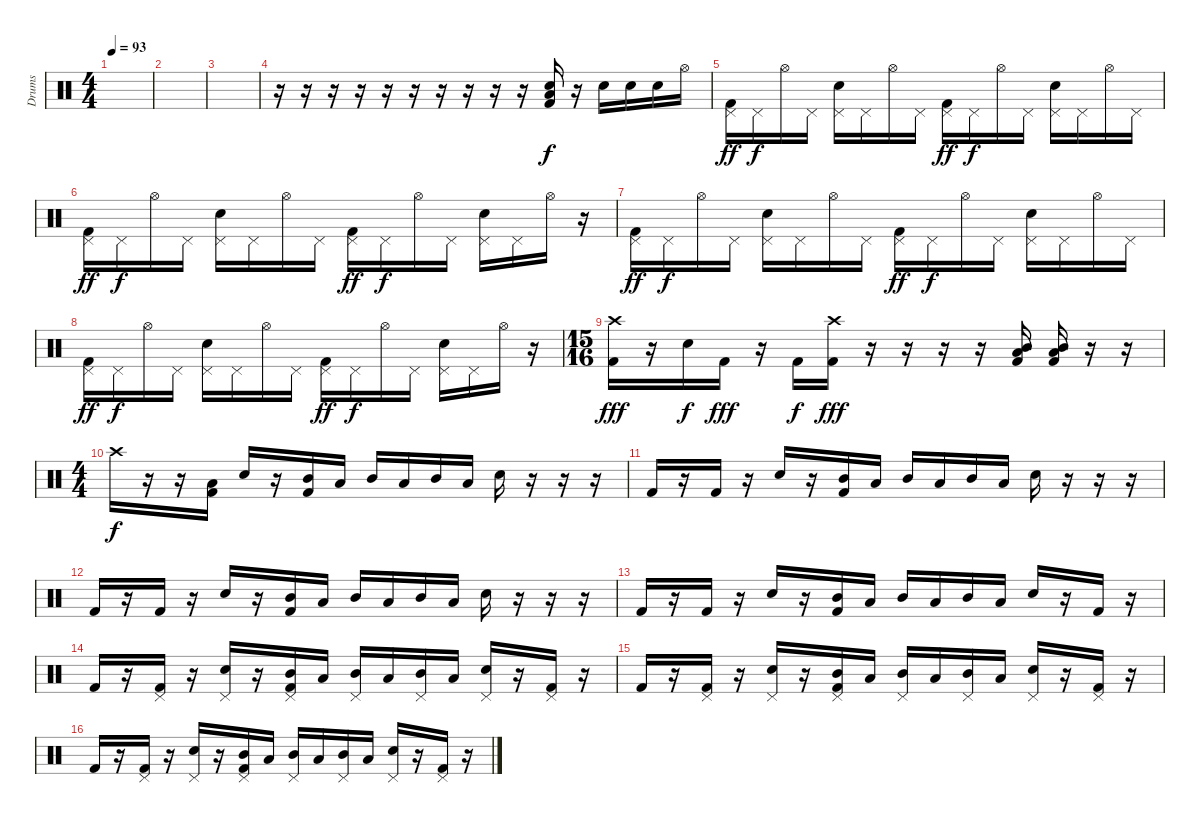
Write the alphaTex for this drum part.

\track ("Drums" "Drums") {instrument percussion}
\staff {score}
\articulation defaults
\ts (4 4)
\tempo 93
\clef neutral
\ks c
|
|
|
r.16 r.16 r.16 r.16 r.16 r.16 r.16 r.16 r.16 r.16 ("Electric Snare (hit)" "Low Tom (hit)" "Kick (hit) 2").16 r.16 "Electric Snare (hit)".16 "Electric Snare (hit)".16 "Electric Snare (hit)".16 "Hi-Hat (open)".16 |
("Pedal Hi-Hat (hit)" "Kick (hit) 2").16{dy ff} "Pedal Hi-Hat (hit)".16{dy f} "Hi-Hat (open)".16 "Pedal Hi-Hat (hit)".16 ("Pedal Hi-Hat (hit)" "Electric Snare (hit)").16 "Pedal Hi-Hat (hit)".16 "Hi-Hat (open)".16 "Pedal Hi-Hat (hit)".16 ("Pedal Hi-Hat (hit)" "Kick (hit) 2").16{dy ff} "Pedal Hi-Hat (hit)".16{dy f} "Hi-Hat (open)".16 "Pedal Hi-Hat (hit)".16 ("Pedal Hi-Hat (hit)" "Electric Snare (hit)").16 "Pedal Hi-Hat (hit)".16 "Hi-Hat (open)".16 "Pedal Hi-Hat (hit)".16 |
("Pedal Hi-Hat (hit)" "Kick (hit) 2").16{dy ff} "Pedal Hi-Hat (hit)".16{dy f} "Hi-Hat (open)".16 "Pedal Hi-Hat (hit)".16 ("Pedal Hi-Hat (hit)" "Electric Snare (hit)").16 "Pedal Hi-Hat (hit)".16 "Hi-Hat (open)".16 "Pedal Hi-Hat (hit)".16 ("Pedal Hi-Hat (hit)" "Kick (hit) 2").16{dy ff} "Pedal Hi-Hat (hit)".16{dy f} "Hi-Hat (open)".16 "Pedal Hi-Hat (hit)".16 ("Pedal Hi-Hat (hit)" "Electric Snare (hit)").16 "Pedal Hi-Hat (hit)".16 "Hi-Hat (open)".16 r.16 |
("Pedal Hi-Hat (hit)" "Kick (hit) 2").16{dy ff} "Pedal Hi-Hat (hit)".16{dy f} "Hi-Hat (open)".16 "Pedal Hi-Hat (hit)".16 ("Pedal Hi-Hat (hit)" "Electric Snare (hit)").16 "Pedal Hi-Hat (hit)".16 "Hi-Hat (open)".16 "Pedal Hi-Hat (hit)".16 ("Pedal Hi-Hat (hit)" "Kick (hit) 2").16{dy ff} "Pedal Hi-Hat (hit)".16{dy f} "Hi-Hat (open)".16 "Pedal Hi-Hat (hit)".16 ("Pedal Hi-Hat (hit)" "Electric Snare (hit)").16 "Pedal Hi-Hat (hit)".16 "Hi-Hat (open)".16 "Pedal Hi-Hat (hit)".16 |
("Pedal Hi-Hat (hit)" "Kick (hit) 2").16{dy ff} "Pedal Hi-Hat (hit)".16{dy f} "Hi-Hat (open)".16 "Pedal Hi-Hat (hit)".16 ("Pedal Hi-Hat (hit)" "Electric Snare (hit)").16 "Pedal Hi-Hat (hit)".16 "Hi-Hat (open)".16 "Pedal Hi-Hat (hit)".16 ("Pedal Hi-Hat (hit)" "Kick (hit) 2").16{dy ff} "Pedal Hi-Hat (hit)".16{dy f} "Hi-Hat (open)".16 "Pedal Hi-Hat (hit)".16 ("Pedal Hi-Hat (hit)" "Electric Snare (hit)").16 "Pedal Hi-Hat (hit)".16 "Hi-Hat (open)".16 r.16 |
\ts (15 16)
("Crash high (hit)" "Kick (hit) 2").16{dy fff} r.16 "Electric Snare (hit)".16{dy f} "Kick (hit) 2".16{dy fff} r.16 "Kick (hit) 2".16{dy f} ("Crash high (hit)" "Kick (hit) 2").16{dy fff} r.16 r.16 r.16 r.16 ("Mid Tom (hit)" "Low Tom (hit)" "Kick (hit) 2").16 ("Mid Tom (hit)" "Low Tom (hit)" "Kick (hit) 2").16 r.16 r.16 |
\ts (4 4)
"Crash high (hit)".16{dy f} r.16 r.16 ("Low Tom (hit)" "Kick (hit) 2").16 "Electric Snare (hit)".16 r.16 ("Mid Tom (hit)" "Kick (hit) 2").16 "Low Tom (hit)".16 "Mid Tom (hit)".16 "Low Tom (hit)".16 "Mid Tom (hit)".16 "Low Tom (hit)".16 "Electric Snare (hit)".16 r.16 r.16 r.16 |
"Kick (hit) 2".16 r.16 "Kick (hit) 2".16 r.16 "Electric Snare (hit)".16 r.16 ("Mid Tom (hit)" "Kick (hit) 2").16 "Low Tom (hit)".16 "Mid Tom (hit)".16 "Low Tom (hit)".16 "Mid Tom (hit)".16 "Low Tom (hit)".16 "Electric Snare (hit)".16 r.16 r.16 r.16 |
"Kick (hit) 2".16 r.16 "Kick (hit) 2".16 r.16 "Electric Snare (hit)".16 r.16 ("Mid Tom (hit)" "Kick (hit) 2").16 "Low Tom (hit)".16 "Mid Tom (hit)".16 "Low Tom (hit)".16 "Mid Tom (hit)".16 "Low Tom (hit)".16 "Electric Snare (hit)".16 r.16 r.16 r.16 |
"Kick (hit) 2".16 r.16 "Kick (hit) 2".16 r.16 "Electric Snare (hit)".16 r.16 ("Mid Tom (hit)" "Kick (hit) 2").16 "Low Tom (hit)".16 "Mid Tom (hit)".16 "Low Tom (hit)".16 "Mid Tom (hit)".16 "Low Tom (hit)".16 "Electric Snare (hit)".16 r.16 "Kick (hit) 2".16 r.16 |
"Kick (hit) 2".16 r.16 ("Pedal Hi-Hat (hit)" "Kick (hit) 2").16 r.16 ("Pedal Hi-Hat (hit)" "Electric Snare (hit)").16 r.16 ("Pedal Hi-Hat (hit)" "Mid Tom (hit)" "Kick (hit) 2").16 "Low Tom (hit)".16 ("Pedal Hi-Hat (hit)" "Mid Tom (hit)").16 "Low Tom (hit)".16 ("Pedal Hi-Hat (hit)" "Mid Tom (hit)").16 "Low Tom (hit)".16 ("Pedal Hi-Hat (hit)" "Electric Snare (hit)").16 r.16 ("Pedal Hi-Hat (hit)" "Kick (hit) 2").16 r.16 |
"Kick (hit) 2".16 r.16 ("Pedal Hi-Hat (hit)" "Kick (hit) 2").16 r.16 ("Pedal Hi-Hat (hit)" "Electric Snare (hit)").16 r.16 ("Pedal Hi-Hat (hit)" "Mid Tom (hit)" "Kick (hit) 2").16 "Low Tom (hit)".16 ("Pedal Hi-Hat (hit)" "Mid Tom (hit)").16 "Low Tom (hit)".16 ("Pedal Hi-Hat (hit)" "Mid Tom (hit)").16 "Low Tom (hit)".16 ("Pedal Hi-Hat (hit)" "Electric Snare (hit)").16 r.16 ("Pedal Hi-Hat (hit)" "Kick (hit) 2").16 r.16 |
"Kick (hit) 2".16 r.16 ("Pedal Hi-Hat (hit)" "Kick (hit) 2").16 r.16 ("Pedal Hi-Hat (hit)" "Electric Snare (hit)").16 r.16 ("Pedal Hi-Hat (hit)" "Mid Tom (hit)" "Kick (hit) 2").16 "Low Tom (hit)".16 ("Pedal Hi-Hat (hit)" "Mid Tom (hit)").16 "Low Tom (hit)".16 ("Pedal Hi-Hat (hit)" "Mid Tom (hit)").16 "Low Tom (hit)".16 ("Pedal Hi-Hat (hit)" "Electric Snare (hit)").16 r.16 ("Pedal Hi-Hat (hit)" "Kick (hit) 2").16 r.16
